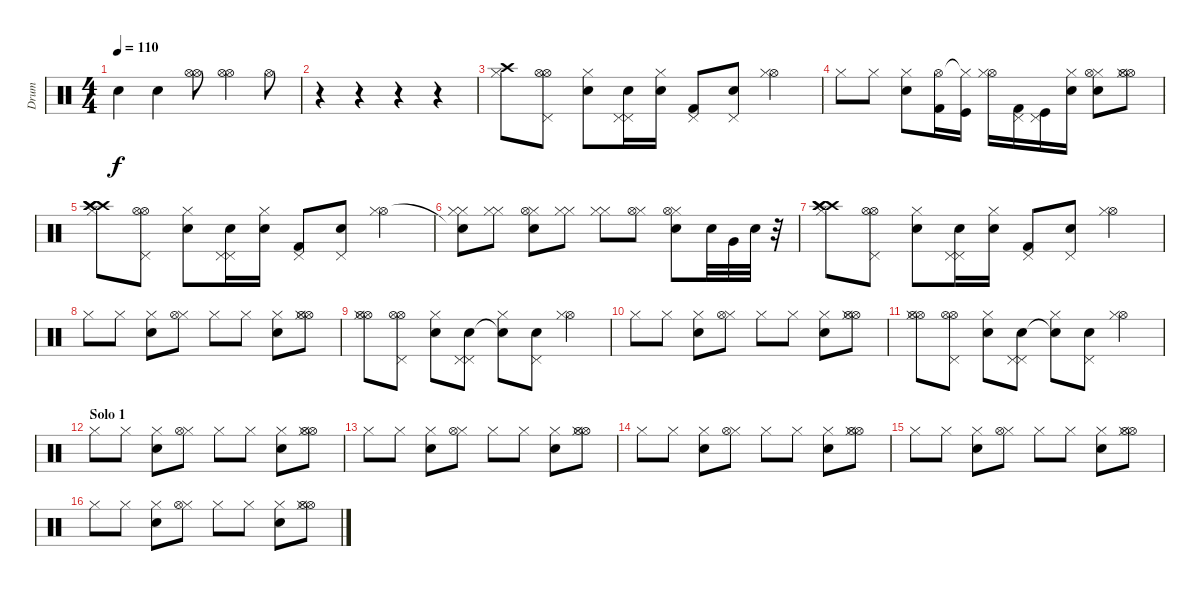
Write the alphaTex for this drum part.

\track ("Drum" "Drum") {instrument percussion}
\staff {score}
\articulation defaults
\ts (4 4)
\tempo 110
\clef neutral
\ks c "Electric Snare (hit)".4{dy f} "Electric Snare (hit)".4
("Hi-Hat (open)" "Hi-Hat (open)").8 ("Hi-Hat (open)" "Hi-Hat (open)").4 "Hi-Hat (open)".8 |
r.4 r.4 r.4 r.4 |
("Crash high (hit)" "Hi-Hat (closed)").8 ("Hi-Hat (open)" "Hi-Hat (open)" "Pedal Hi-Hat (hit)").8 ("Electric Snare (hit)" "Hi-Hat (closed)").8 ("Electric Snare (hit)" "Pedal Hi-Hat (hit)" "Pedal Hi-Hat (hit)").16 ("Hi-Hat (closed)" "Electric Snare (hit)").16 ("Pedal Hi-Hat (hit)" "Kick (hit) 2").8 ("Electric Snare (hit)" "Pedal Hi-Hat (hit)").8 ("Hi-Hat (open)" "Hi-Hat (closed)").4 |
"Hi-Hat (closed)".8 "Hi-Hat (closed)".8 ("Electric Snare (hit)" "Hi-Hat (closed)").8 ("Kick (hit) 2" "Hi-Hat (open)").16 ("Kick (hit)" "Hi-Hat (closed)"{t}).16 ("Hi-Hat (open)" "Hi-Hat (closed)").16 ("Kick (hit) 2" "Pedal Hi-Hat (hit)").16 ("Kick (hit)" "Pedal Hi-Hat (hit)").16 ("Electric Snare (hit)" "Hi-Hat (closed)").16 ("Electric Snare (hit)" "Hi-Hat (closed)" "Hi-Hat (open)").8 ("Hi-Hat (open)" "Hi-Hat (closed)" "Hi-Hat (open)").8 |
("Crash high (hit)" "Crash high (hit)" "Crash high (hit)" "Hi-Hat (closed)").8 ("Hi-Hat (open)" "Hi-Hat (open)" "Pedal Hi-Hat (hit)").8 ("Electric Snare (hit)" "Hi-Hat (closed)").8 ("Electric Snare (hit)" "Pedal Hi-Hat (hit)" "Pedal Hi-Hat (hit)").16 ("Hi-Hat (closed)" "Electric Snare (hit)").16 ("Pedal Hi-Hat (hit)" "Kick (hit) 2").8 ("Electric Snare (hit)" "Pedal Hi-Hat (hit)").8 ("Hi-Hat (open)" "Hi-Hat (closed)").4 |
("Snare (hit)"{t} "Hi-Hat (closed)" "Hi-Hat (closed)").8 ("Hi-Hat (closed)" "Hi-Hat (closed)").8 ("Electric Snare (hit)" "Hi-Hat (closed)" "Hi-Hat (open)").8 ("Hi-Hat (closed)" "Hi-Hat (closed)").8 ("Hi-Hat (closed)" "Hi-Hat (closed)").8 ("Hi-Hat (closed)" "Hi-Hat (open)").8 ("Electric Snare (hit)" "Hi-Hat (closed)" "Hi-Hat (open)").8 "Electric Snare (hit)".32 "Very Low Tom (hit)".32 "Electric Snare (hit)".32 r.32 |
("Crash high (hit)" "Crash high (hit)" "Crash high (hit)" "Hi-Hat (closed)").8 ("Hi-Hat (open)" "Hi-Hat (open)" "Pedal Hi-Hat (hit)").8 ("Electric Snare (hit)" "Hi-Hat (closed)").8 ("Electric Snare (hit)" "Pedal Hi-Hat (hit)" "Pedal Hi-Hat (hit)").16 ("Hi-Hat (closed)" "Electric Snare (hit)").16 ("Pedal Hi-Hat (hit)" "Kick (hit) 2").8 ("Electric Snare (hit)" "Pedal Hi-Hat (hit)").8 ("Hi-Hat (open)" "Hi-Hat (closed)").4 |
"Hi-Hat (closed)".8 "Hi-Hat (closed)".8 ("Electric Snare (hit)" "Hi-Hat (closed)").8 ("Hi-Hat (closed)" "Hi-Hat (open)").8 "Hi-Hat (closed)".8 "Hi-Hat (closed)".8 ("Electric Snare (hit)" "Hi-Hat (closed)").8 ("Hi-Hat (open)" "Hi-Hat (closed)" "Hi-Hat (open)").8 |
("Hi-Hat (open)" "Hi-Hat (open)" "Hi-Hat (closed)").8 ("Hi-Hat (open)" "Hi-Hat (open)" "Pedal Hi-Hat (hit)").8 ("Electric Snare (hit)" "Hi-Hat (closed)").8 ("Electric Snare (hit)" "Pedal Hi-Hat (hit)" "Pedal Hi-Hat (hit)").8 ("Snare (hit)"{t} "Hi-Hat (closed)").8 ("Electric Snare (hit)" "Pedal Hi-Hat (hit)").8 ("Hi-Hat (open)" "Hi-Hat (closed)").4 |
"Hi-Hat (closed)".8 "Hi-Hat (closed)".8 ("Electric Snare (hit)" "Hi-Hat (closed)").8 ("Hi-Hat (closed)" "Hi-Hat (open)").8 "Hi-Hat (closed)".8 "Hi-Hat (closed)".8 ("Electric Snare (hit)" "Hi-Hat (closed)").8 ("Hi-Hat (open)" "Hi-Hat (closed)" "Hi-Hat (open)").8 |
("Hi-Hat (open)" "Hi-Hat (open)" "Hi-Hat (closed)").8 ("Hi-Hat (open)" "Hi-Hat (open)" "Pedal Hi-Hat (hit)").8 ("Electric Snare (hit)" "Hi-Hat (closed)").8 ("Electric Snare (hit)" "Pedal Hi-Hat (hit)" "Pedal Hi-Hat (hit)").8 ("Snare (hit)"{t} "Hi-Hat (closed)").8 ("Electric Snare (hit)" "Pedal Hi-Hat (hit)").8 ("Hi-Hat (open)" "Hi-Hat (closed)").4 |
\section ("" "Solo 1")
"Hi-Hat (closed)".8 "Hi-Hat (closed)".8 ("Electric Snare (hit)" "Hi-Hat (closed)").8 ("Hi-Hat (closed)" "Hi-Hat (open)").8 "Hi-Hat (closed)".8 "Hi-Hat (closed)".8 ("Electric Snare (hit)" "Hi-Hat (closed)").8 ("Hi-Hat (open)" "Hi-Hat (closed)" "Hi-Hat (open)").8 |
"Hi-Hat (closed)".8 "Hi-Hat (closed)".8 ("Electric Snare (hit)" "Hi-Hat (closed)").8 ("Hi-Hat (closed)" "Hi-Hat (open)").8 "Hi-Hat (closed)".8 "Hi-Hat (closed)".8 ("Electric Snare (hit)" "Hi-Hat (closed)").8 ("Hi-Hat (open)" "Hi-Hat (closed)" "Hi-Hat (open)").8 |
"Hi-Hat (closed)".8 "Hi-Hat (closed)".8 ("Electric Snare (hit)" "Hi-Hat (closed)").8 ("Hi-Hat (closed)" "Hi-Hat (open)").8 "Hi-Hat (closed)".8 "Hi-Hat (closed)".8 ("Electric Snare (hit)" "Hi-Hat (closed)").8 ("Hi-Hat (open)" "Hi-Hat (closed)" "Hi-Hat (open)").8 |
"Hi-Hat (closed)".8 "Hi-Hat (closed)".8 ("Electric Snare (hit)" "Hi-Hat (closed)").8 ("Hi-Hat (closed)" "Hi-Hat (open)").8 "Hi-Hat (closed)".8 "Hi-Hat (closed)".8 ("Electric Snare (hit)" "Hi-Hat (closed)").8 ("Hi-Hat (open)" "Hi-Hat (closed)" "Hi-Hat (open)").8 |
"Hi-Hat (closed)".8 "Hi-Hat (closed)".8 ("Electric Snare (hit)" "Hi-Hat (closed)").8 ("Hi-Hat (closed)" "Hi-Hat (open)").8 "Hi-Hat (closed)".8 "Hi-Hat (closed)".8 ("Electric Snare (hit)" "Hi-Hat (closed)").8 ("Hi-Hat (open)" "Hi-Hat (closed)" "Hi-Hat (open)").8
